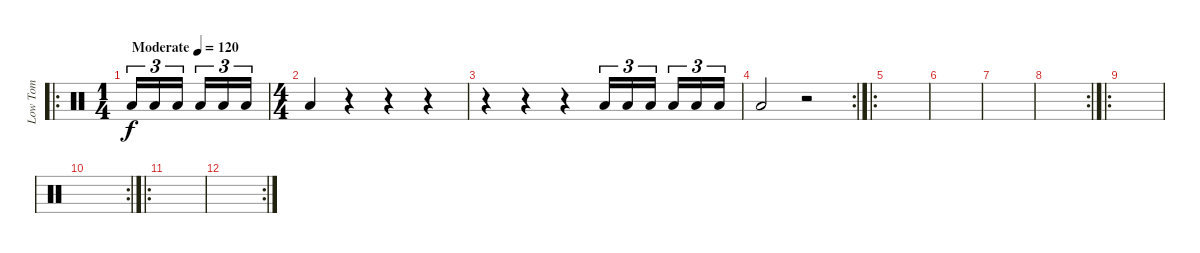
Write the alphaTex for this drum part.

\track ("Low Tom" "Low Tom") {instrument percussion}
\staff {score}
\articulation defaults
\ro
\ts (1 4)
\tempo (120 "Moderate")
\clef neutral
\ks c "Low Floor Tom (hit)".16{tu (3 2) dy f} "Low Floor Tom (hit)".16{tu (3 2)} "Low Floor Tom (hit)".16{tu (3 2) beam splitsecondary} "Low Floor Tom (hit)".16{tu (3 2)} "Low Floor Tom (hit)".16{tu (3 2)} "Low Floor Tom (hit)".16{tu (3 2)}
|
\ts (4 4)
"Low Floor Tom (hit)".4 r.4 r.4 r.4 |
r.4 r.4 r.4 "Low Floor Tom (hit)".16{tu (3 2)} "Low Floor Tom (hit)".16{tu (3 2)} "Low Floor Tom (hit)".16{tu (3 2) beam splitsecondary} "Low Floor Tom (hit)".16{tu (3 2)} "Low Floor Tom (hit)".16{tu (3 2)} "Low Floor Tom (hit)".16{tu (3 2)} |
\rc 2 "Low Floor Tom (hit)".2
r.2 |
\ro
|
|
|
\rc 2
|
\ro
|
\rc 2
|
\ro
|
\rc 2
